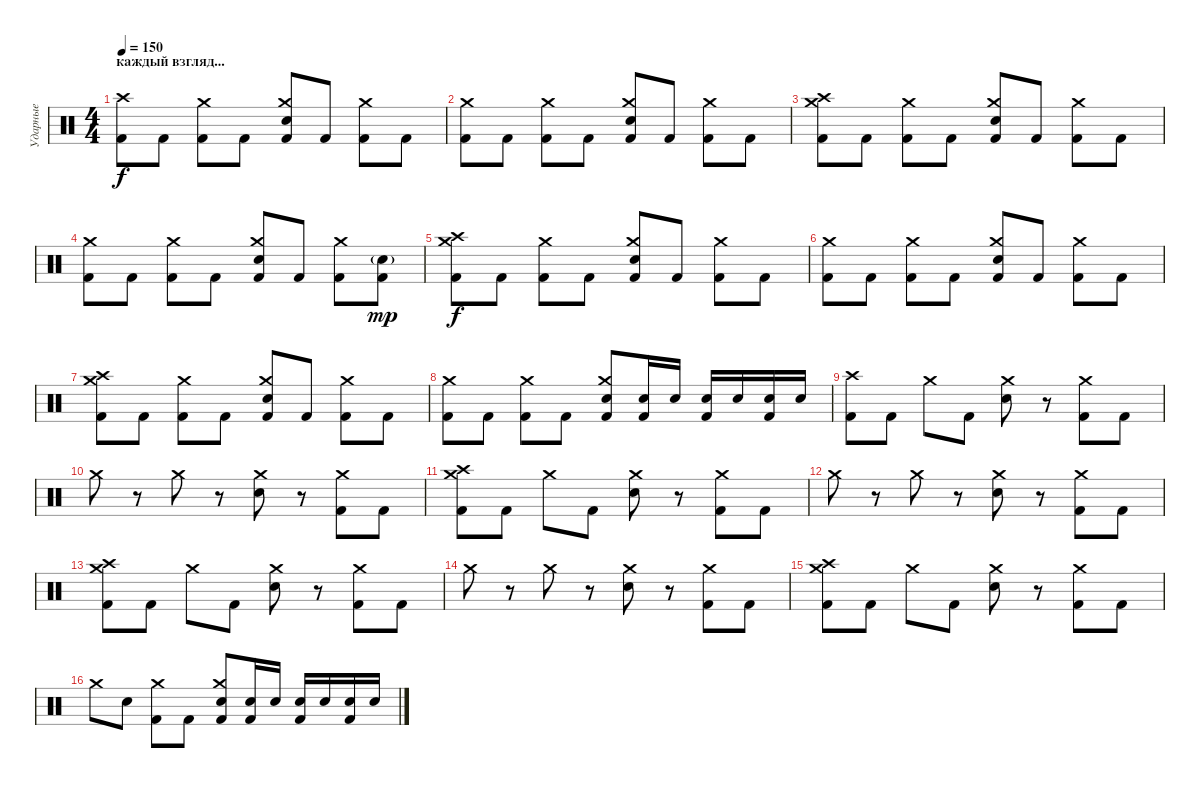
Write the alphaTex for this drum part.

\track ("Ударные" "Ударные") {instrument percussion}
\staff {score}
\articulation defaults
\ts (4 4)
\section ("" "каждый взгляд...")
\tempo 150
\clef neutral
\ks c
("Crash high (hit)" "Kick (hit) 2").8{dy f} "Kick (hit) 2".8 ("Crash medium (hit)" "Kick (hit) 2").8 "Kick (hit) 2".8 ("Crash medium (hit)" "Electric Snare (hit)" "Kick (hit) 2").8 "Kick (hit) 2".8 ("Crash medium (hit)" "Kick (hit) 2").8 "Kick (hit) 2".8 |
("Crash medium (hit)" "Kick (hit) 2").8 "Kick (hit) 2".8 ("Crash medium (hit)" "Kick (hit) 2").8 "Kick (hit) 2".8 ("Crash medium (hit)" "Electric Snare (hit)" "Kick (hit) 2").8 "Kick (hit) 2".8 ("Crash medium (hit)" "Kick (hit) 2").8 "Kick (hit) 2".8 |
("Crash medium (hit)" "Crash high (hit)" "Kick (hit) 2").8 "Kick (hit) 2".8 ("Crash medium (hit)" "Kick (hit) 2").8 "Kick (hit) 2".8 ("Crash medium (hit)" "Electric Snare (hit)" "Kick (hit) 2").8 "Kick (hit) 2".8 ("Crash medium (hit)" "Kick (hit) 2").8 "Kick (hit) 2".8 |
("Crash medium (hit)" "Kick (hit) 2").8 "Kick (hit) 2".8 ("Crash medium (hit)" "Kick (hit) 2").8 "Kick (hit) 2".8 ("Crash medium (hit)" "Electric Snare (hit)" "Kick (hit) 2").8 "Kick (hit) 2".8 ("Crash medium (hit)" "Kick (hit) 2").8 ("Electric Snare (hit)"{g} "Kick (hit) 2").8{dy mp} |
("Crash high (hit)" "Crash medium (hit)" "Kick (hit) 2").8{dy f} "Kick (hit) 2".8 ("Crash medium (hit)" "Kick (hit) 2").8 "Kick (hit) 2".8 ("Crash medium (hit)" "Electric Snare (hit)" "Kick (hit) 2").8 "Kick (hit) 2".8 ("Crash medium (hit)" "Kick (hit) 2").8 "Kick (hit) 2".8 |
("Crash medium (hit)" "Kick (hit) 2").8 "Kick (hit) 2".8 ("Crash medium (hit)" "Kick (hit) 2").8 "Kick (hit) 2".8 ("Crash medium (hit)" "Electric Snare (hit)" "Kick (hit) 2").8 "Kick (hit) 2".8 ("Crash medium (hit)" "Kick (hit) 2").8 "Kick (hit) 2".8 |
("Crash medium (hit)" "Crash high (hit)" "Kick (hit) 2").8 "Kick (hit) 2".8 ("Crash medium (hit)" "Kick (hit) 2").8 "Kick (hit) 2".8 ("Crash medium (hit)" "Electric Snare (hit)" "Kick (hit) 2").8 "Kick (hit) 2".8 ("Crash medium (hit)" "Kick (hit) 2").8 "Kick (hit) 2".8 |
("Crash medium (hit)" "Kick (hit) 2").8 "Kick (hit) 2".8 ("Crash medium (hit)" "Kick (hit) 2").8 "Kick (hit) 2".8 ("Crash medium (hit)" "Electric Snare (hit)" "Kick (hit) 2").8 ("Electric Snare (hit)" "Kick (hit) 2").16 "Electric Snare (hit)".16 ("Electric Snare (hit)" "Kick (hit) 2").16 "Electric Snare (hit)".16 ("Electric Snare (hit)" "Kick (hit) 2").16 "Electric Snare (hit)".16 |
("Crash high (hit)" "Kick (hit) 2").8 "Kick (hit) 2".8 "Crash medium (hit)".8 "Kick (hit) 2".8 ("Crash medium (hit)" "Electric Snare (hit)").8 r.8 ("Crash medium (hit)" "Kick (hit) 2").8 "Kick (hit) 2".8 |
"Crash medium (hit)".8 r.8 "Crash medium (hit)".8 r.8 ("Crash medium (hit)" "Electric Snare (hit)").8 r.8 ("Crash medium (hit)" "Kick (hit) 2").8 "Kick (hit) 2".8 |
("Crash high (hit)" "Crash medium (hit)" "Kick (hit) 2").8 "Kick (hit) 2".8 "Crash medium (hit)".8 "Kick (hit) 2".8 ("Crash medium (hit)" "Electric Snare (hit)").8 r.8 ("Crash medium (hit)" "Kick (hit) 2").8 "Kick (hit) 2".8 |
"Crash medium (hit)".8 r.8 "Crash medium (hit)".8 r.8 ("Crash medium (hit)" "Electric Snare (hit)").8 r.8 ("Crash medium (hit)" "Kick (hit) 2").8 "Kick (hit) 2".8 |
("Crash high (hit)" "Crash medium (hit)" "Kick (hit) 2").8 "Kick (hit) 2".8 "Crash medium (hit)".8 "Kick (hit) 2".8 ("Crash medium (hit)" "Electric Snare (hit)").8 r.8 ("Crash medium (hit)" "Kick (hit) 2").8 "Kick (hit) 2".8 |
"Crash medium (hit)".8 r.8 "Crash medium (hit)".8 r.8 ("Crash medium (hit)" "Electric Snare (hit)").8 r.8 ("Crash medium (hit)" "Kick (hit) 2").8 "Kick (hit) 2".8 |
("Crash high (hit)" "Crash medium (hit)" "Kick (hit) 2").8 "Kick (hit) 2".8 "Crash medium (hit)".8 "Kick (hit) 2".8 ("Crash medium (hit)" "Electric Snare (hit)").8 r.8 ("Crash medium (hit)" "Kick (hit) 2").8 "Kick (hit) 2".8 |
"Crash medium (hit)".8 "Electric Snare (hit)".8 ("Crash medium (hit)" "Kick (hit) 2").8 "Kick (hit) 2".8 ("Crash medium (hit)" "Electric Snare (hit)" "Kick (hit) 2").8 ("Electric Snare (hit)" "Kick (hit) 2").16 "Electric Snare (hit)".16 ("Electric Snare (hit)" "Kick (hit) 2").16 "Electric Snare (hit)".16 ("Electric Snare (hit)" "Kick (hit) 2").16 "Electric Snare (hit)".16
